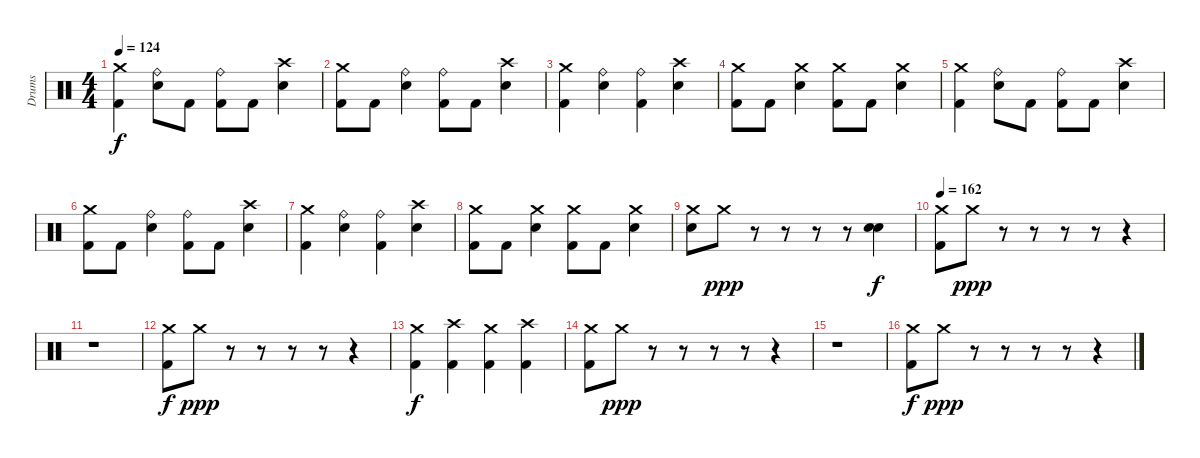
\track ("Drums" "Drums") {instrument percussion}
\staff
\articulation defaults
\ts (4 4)
\tempo 124
\clef neutral
\ks c
("Crash medium (hit)" "Kick (hit) 2").4{dy f} ("Ride (bell)" "Electric Snare (hit)").8 "Kick (hit) 2".8 ("Ride (bell)" "Kick (hit) 2").8 "Kick (hit) 2".8 ("Crash high (hit)" "Electric Snare (hit)").4 |
("Crash medium (hit)" "Kick (hit) 2").8 "Kick (hit) 2".8 ("Ride (bell)" "Electric Snare (hit)").4 ("Ride (bell)" "Kick (hit) 2").8 "Kick (hit) 2".8 ("Crash high (hit)" "Electric Snare (hit)").4 |
("Crash medium (hit)" "Kick (hit) 2").4 ("Ride (bell)" "Electric Snare (hit)").4 ("Ride (bell)" "Kick (hit) 2").4 ("Crash high (hit)" "Electric Snare (hit)").4 |
("Crash medium (hit)" "Kick (hit) 2").8 "Kick (hit) 2".8 ("Crash medium (hit)" "Electric Snare (hit)").4 ("Crash medium (hit)" "Kick (hit) 2").8 "Kick (hit) 2".8 ("Crash medium (hit)" "Electric Snare (hit)").4 |
("Crash medium (hit)" "Kick (hit) 2").4 ("Ride (bell)" "Electric Snare (hit)").8 "Kick (hit) 2".8 ("Ride (bell)" "Kick (hit) 2").8 "Kick (hit) 2".8 ("Crash high (hit)" "Electric Snare (hit)").4 |
("Crash medium (hit)" "Kick (hit) 2").8 "Kick (hit) 2".8 ("Ride (bell)" "Electric Snare (hit)").4 ("Ride (bell)" "Kick (hit) 2").8 "Kick (hit) 2".8 ("Crash high (hit)" "Electric Snare (hit)").4 |
("Crash medium (hit)" "Kick (hit) 2").4 ("Ride (bell)" "Electric Snare (hit)").4 ("Ride (bell)" "Kick (hit) 2").4 ("Crash high (hit)" "Electric Snare (hit)").4 |
("Crash medium (hit)" "Kick (hit) 2").8 "Kick (hit) 2".8 ("Crash medium (hit)" "Electric Snare (hit)").4 ("Crash medium (hit)" "Kick (hit) 2").8 "Kick (hit) 2".8 ("Crash medium (hit)" "Electric Snare (hit)").4 |
("Crash medium (hit)" "Electric Snare (hit)").8 "Crash medium (hit)".8{dy ppp} r.8 r.8 r.8 r.8 ("Electric Snare (hit)" "Electric Snare (hit)").4{bd 60 dy f} |
\tempo 162
("Crash medium (hit)" "Kick (hit) 2").8 "Crash medium (hit)".8{dy ppp} r.8 r.8 r.8 r.8 r.4 |
r.1 |
("Crash medium (hit)" "Kick (hit) 2").8{dy f} "Crash medium (hit)".8{dy ppp} r.8 r.8 r.8 r.8 r.4 |
("Crash medium (hit)" "Kick (hit) 2").4{dy f} ("Crash high (hit)" "Kick (hit) 2").4 ("Crash medium (hit)" "Kick (hit) 2").4 ("Crash high (hit)" "Kick (hit) 2").4 |
("Crash medium (hit)" "Kick (hit) 2").8 "Crash medium (hit)".8{dy ppp} r.8 r.8 r.8 r.8 r.4 |
r.1 |
("Crash medium (hit)" "Kick (hit) 2").8{dy f} "Crash medium (hit)".8{dy ppp} r.8 r.8 r.8 r.8 r.4
